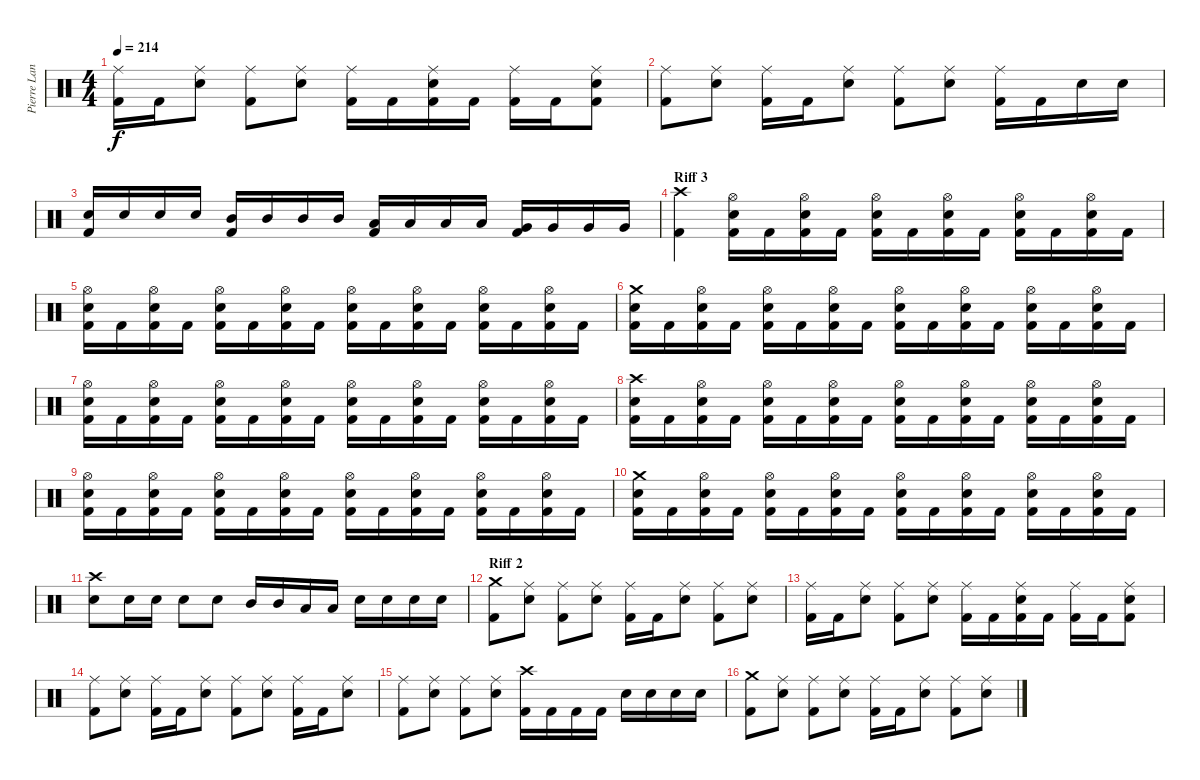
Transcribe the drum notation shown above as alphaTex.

\track ("Pierre Langlois (Drums)" "Pierre Lan") {instrument percussion}
\staff {score}
\articulation defaults
\ts (4 4)
\tempo 214
\clef neutral
\ks c
("Ride (middle)" "Kick (hit) 2").16{dy f} "Kick (hit) 2".16 ("Ride (middle)" "Snare (hit) 2").8 ("Ride (middle)" "Kick (hit) 2").8 ("Ride (middle)" "Snare (hit) 2").8 ("Ride (middle)" "Kick (hit) 2").16 "Kick (hit) 2".16 ("Ride (middle)" "Snare (hit) 2" "Kick (hit) 2").16 "Kick (hit) 2".16 ("Ride (middle)" "Kick (hit) 2").16 "Kick (hit) 2".16 ("Ride (middle)" "Snare (hit) 2" "Kick (hit) 2").8 |
("Ride (middle)" "Kick (hit) 2").8 ("Ride (middle)" "Snare (hit) 2").8 ("Ride (middle)" "Kick (hit) 2").16 "Kick (hit) 2".16 ("Ride (middle)" "Snare (hit) 2").8 ("Ride (middle)" "Kick (hit) 2").8 ("Ride (middle)" "Snare (hit) 2").8 ("Ride (middle)" "Kick (hit) 2").16 "Kick (hit) 2".16 "Snare (hit) 2".16 "Snare (hit) 2".16 |
("Snare (hit) 2" "Kick (hit) 2").16 "Snare (hit) 2".16 "Snare (hit) 2".16 "Snare (hit) 2".16 ("Mid Tom (hit)" "Kick (hit) 2").16 "Mid Tom (hit)".16 "Mid Tom (hit)".16 "Mid Tom (hit)".16 ("Low Tom (hit)" "Kick (hit) 2").16 "Low Tom (hit)".16 "Low Tom (hit)".16 "Low Tom (hit)".16 ("Very Low Tom (hit)" "Kick (hit) 2").16 "Very Low Tom (hit)".16 "Very Low Tom (hit)".16 "Very Low Tom (hit)".16 |
\section ("" "Riff 3")
("Crash high (hit)" "Kick (hit) 2").4 ("Hi-Hat (open)" "Snare (hit) 2" "Kick (hit) 2").16 "Kick (hit) 2".16 ("Hi-Hat (open)" "Snare (hit) 2" "Kick (hit) 2").16 "Kick (hit) 2".16 ("Hi-Hat (open)" "Snare (hit) 2" "Kick (hit) 2").16 "Kick (hit) 2".16 ("Hi-Hat (open)" "Snare (hit) 2" "Kick (hit) 2").16 "Kick (hit) 2".16 ("Hi-Hat (open)" "Snare (hit) 2" "Kick (hit) 2").16 "Kick (hit) 2".16 ("Hi-Hat (open)" "Snare (hit) 2" "Kick (hit) 2").16 "Kick (hit) 2".16 |
("Hi-Hat (open)" "Snare (hit) 2" "Kick (hit) 2").16 "Kick (hit) 2".16 ("Hi-Hat (open)" "Snare (hit) 2" "Kick (hit) 2").16 "Kick (hit) 2".16 ("Hi-Hat (open)" "Snare (hit) 2" "Kick (hit) 2").16 "Kick (hit) 2".16 ("Hi-Hat (open)" "Snare (hit) 2" "Kick (hit) 2").16 "Kick (hit) 2".16 ("Hi-Hat (open)" "Snare (hit) 2" "Kick (hit) 2").16 "Kick (hit) 2".16 ("Hi-Hat (open)" "Snare (hit) 2" "Kick (hit) 2").16 "Kick (hit) 2".16 ("Hi-Hat (open)" "Snare (hit) 2" "Kick (hit) 2").16 "Kick (hit) 2".16 ("Hi-Hat (open)" "Snare (hit) 2" "Kick (hit) 2").16 "Kick (hit) 2".16 |
("Crash medium (hit)" "Snare (hit) 2" "Kick (hit) 2").16 "Kick (hit) 2".16 ("Hi-Hat (open)" "Snare (hit) 2" "Kick (hit) 2").16 "Kick (hit) 2".16 ("Hi-Hat (open)" "Snare (hit) 2" "Kick (hit) 2").16 "Kick (hit) 2".16 ("Hi-Hat (open)" "Snare (hit) 2" "Kick (hit) 2").16 "Kick (hit) 2".16 ("Hi-Hat (open)" "Snare (hit) 2" "Kick (hit) 2").16 "Kick (hit) 2".16 ("Hi-Hat (open)" "Snare (hit) 2" "Kick (hit) 2").16 "Kick (hit) 2".16 ("Hi-Hat (open)" "Snare (hit) 2" "Kick (hit) 2").16 "Kick (hit) 2".16 ("Hi-Hat (open)" "Snare (hit) 2" "Kick (hit) 2").16 "Kick (hit) 2".16 |
("Hi-Hat (open)" "Snare (hit) 2" "Kick (hit) 2").16 "Kick (hit) 2".16 ("Hi-Hat (open)" "Snare (hit) 2" "Kick (hit) 2").16 "Kick (hit) 2".16 ("Hi-Hat (open)" "Snare (hit) 2" "Kick (hit) 2").16 "Kick (hit) 2".16 ("Hi-Hat (open)" "Snare (hit) 2" "Kick (hit) 2").16 "Kick (hit) 2".16 ("Hi-Hat (open)" "Snare (hit) 2" "Kick (hit) 2").16 "Kick (hit) 2".16 ("Hi-Hat (open)" "Snare (hit) 2" "Kick (hit) 2").16 "Kick (hit) 2".16 ("Hi-Hat (open)" "Snare (hit) 2" "Kick (hit) 2").16 "Kick (hit) 2".16 ("Hi-Hat (open)" "Snare (hit) 2" "Kick (hit) 2").16 "Kick (hit) 2".16 |
("Crash high (hit)" "Snare (hit) 2" "Kick (hit) 2").16 "Kick (hit) 2".16 ("Hi-Hat (open)" "Snare (hit) 2" "Kick (hit) 2").16 "Kick (hit) 2".16 ("Hi-Hat (open)" "Snare (hit) 2" "Kick (hit) 2").16 "Kick (hit) 2".16 ("Hi-Hat (open)" "Snare (hit) 2" "Kick (hit) 2").16 "Kick (hit) 2".16 ("Hi-Hat (open)" "Snare (hit) 2" "Kick (hit) 2").16 "Kick (hit) 2".16 ("Hi-Hat (open)" "Snare (hit) 2" "Kick (hit) 2").16 "Kick (hit) 2".16 ("Hi-Hat (open)" "Snare (hit) 2" "Kick (hit) 2").16 "Kick (hit) 2".16 ("Hi-Hat (open)" "Snare (hit) 2" "Kick (hit) 2").16 "Kick (hit) 2".16 |
("Hi-Hat (open)" "Snare (hit) 2" "Kick (hit) 2").16 "Kick (hit) 2".16 ("Hi-Hat (open)" "Snare (hit) 2" "Kick (hit) 2").16 "Kick (hit) 2".16 ("Hi-Hat (open)" "Snare (hit) 2" "Kick (hit) 2").16 "Kick (hit) 2".16 ("Hi-Hat (open)" "Snare (hit) 2" "Kick (hit) 2").16 "Kick (hit) 2".16 ("Hi-Hat (open)" "Snare (hit) 2" "Kick (hit) 2").16 "Kick (hit) 2".16 ("Hi-Hat (open)" "Snare (hit) 2" "Kick (hit) 2").16 "Kick (hit) 2".16 ("Hi-Hat (open)" "Snare (hit) 2" "Kick (hit) 2").16 "Kick (hit) 2".16 ("Hi-Hat (open)" "Snare (hit) 2" "Kick (hit) 2").16 "Kick (hit) 2".16 |
("Crash medium (hit)" "Snare (hit) 2" "Kick (hit) 2").16 "Kick (hit) 2".16 ("Hi-Hat (open)" "Snare (hit) 2" "Kick (hit) 2").16 "Kick (hit) 2".16 ("Hi-Hat (open)" "Snare (hit) 2" "Kick (hit) 2").16 "Kick (hit) 2".16 ("Hi-Hat (open)" "Snare (hit) 2" "Kick (hit) 2").16 "Kick (hit) 2".16 ("Hi-Hat (open)" "Snare (hit) 2" "Kick (hit) 2").16 "Kick (hit) 2".16 ("Hi-Hat (open)" "Snare (hit) 2" "Kick (hit) 2").16 "Kick (hit) 2".16 ("Hi-Hat (open)" "Snare (hit) 2" "Kick (hit) 2").16 "Kick (hit) 2".16 ("Hi-Hat (open)" "Snare (hit) 2" "Kick (hit) 2").16 "Kick (hit) 2".16 |
("Crash high (hit)" "Snare (hit) 2").8 "Snare (hit) 2".16 "Snare (hit) 2".16 "Snare (hit) 2".8 "Snare (hit) 2".8 "Mid Tom (hit)".16 "Mid Tom (hit)".16 "Low Tom (hit)".16 "Low Tom (hit)".16 "Snare (hit) 2".16 "Snare (hit) 2".16 "Snare (hit) 2".16 "Snare (hit) 2".16 |
\section ("" "Riff 2")
("Crash medium (hit)" "Kick (hit) 2").8 ("Ride (middle)" "Snare (hit) 2").8 ("Ride (middle)" "Kick (hit) 2").8 ("Ride (middle)" "Snare (hit) 2").8 ("Ride (middle)" "Kick (hit) 2").16 "Kick (hit) 2".16 ("Ride (middle)" "Snare (hit) 2").8 ("Ride (middle)" "Kick (hit) 2").8 ("Ride (middle)" "Snare (hit) 2").8 |
("Ride (middle)" "Kick (hit) 2").16 "Kick (hit) 2".16 ("Ride (middle)" "Snare (hit) 2").8 ("Ride (middle)" "Kick (hit) 2").8 ("Ride (middle)" "Snare (hit) 2").8 ("Ride (middle)" "Kick (hit) 2").16 "Kick (hit) 2".16 ("Ride (middle)" "Snare (hit) 2" "Kick (hit) 2").16 "Kick (hit) 2".16 ("Ride (middle)" "Kick (hit) 2").16 "Kick (hit) 2".16 ("Ride (middle)" "Snare (hit) 2" "Kick (hit) 2").8 |
("Ride (middle)" "Kick (hit) 2").8 ("Ride (middle)" "Snare (hit) 2").8 ("Ride (middle)" "Kick (hit) 2").16 "Kick (hit) 2".16 ("Ride (middle)" "Snare (hit) 2").8 ("Ride (middle)" "Kick (hit) 2").8 ("Ride (middle)" "Snare (hit) 2").8 ("Ride (middle)" "Kick (hit) 2").16 "Kick (hit) 2".16 ("Ride (middle)" "Snare (hit) 2").8 |
("Ride (middle)" "Kick (hit) 2").8 ("Ride (middle)" "Snare (hit) 2").8 ("Ride (middle)" "Kick (hit) 2").8 ("Ride (middle)" "Snare (hit) 2").8 ("Crash high (hit)" "Kick (hit) 2").16 "Kick (hit) 2".16 "Kick (hit) 2".16 "Kick (hit) 2".16 "Snare (hit) 2".16 "Snare (hit) 2".16 "Snare (hit) 2".16 "Snare (hit) 2".16 |
("Crash medium (hit)" "Kick (hit) 2").8 ("Ride (middle)" "Snare (hit) 2").8 ("Ride (middle)" "Kick (hit) 2").8 ("Ride (middle)" "Snare (hit) 2").8 ("Ride (middle)" "Kick (hit) 2").16 "Kick (hit) 2".16 ("Ride (middle)" "Snare (hit) 2").8 ("Ride (middle)" "Kick (hit) 2").8 ("Ride (middle)" "Snare (hit) 2").8
